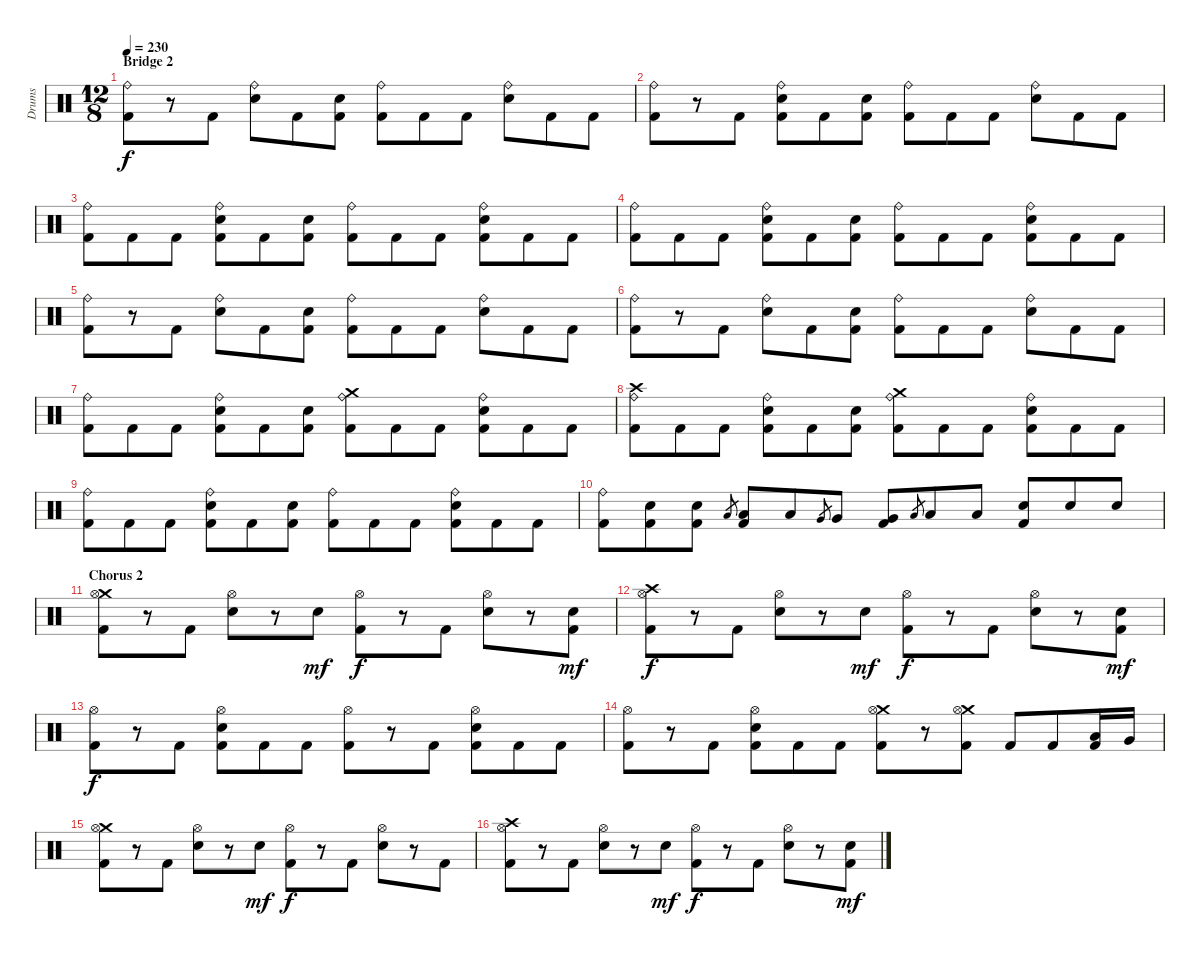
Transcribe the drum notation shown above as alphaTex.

\track ("Drums" "Drums") {instrument percussion}
\staff {score}
\articulation defaults
\ts (12 8)
\section ("" "Bridge 2")
\tempo 230
\clef neutral
\ks c
("Ride (bell)" "Kick (hit) 2").8{dy f} r.8 "Kick (hit) 2".8 ("Ride (bell)" "Snare (hit) 2").8 "Kick (hit) 2".8 ("Snare (hit) 2" "Kick (hit) 2").8 ("Ride (bell)" "Kick (hit) 2").8 "Kick (hit) 2".8 "Kick (hit) 2".8 ("Ride (bell)" "Snare (hit) 2").8 "Kick (hit) 2".8 "Kick (hit) 2".8 |
("Ride (bell)" "Kick (hit) 2").8 r.8 "Kick (hit) 2".8 ("Ride (bell)" "Snare (hit) 2" "Kick (hit) 2").8 "Kick (hit) 2".8 ("Snare (hit) 2" "Kick (hit) 2").8 ("Ride (bell)" "Kick (hit) 2").8 "Kick (hit) 2".8 "Kick (hit) 2".8 ("Ride (bell)" "Snare (hit) 2").8 "Kick (hit) 2".8 "Kick (hit) 2".8 |
("Ride (bell)" "Kick (hit) 2").8 "Kick (hit) 2".8 "Kick (hit) 2".8 ("Ride (bell)" "Snare (hit) 2" "Kick (hit) 2").8 "Kick (hit) 2".8 ("Snare (hit) 2" "Kick (hit) 2").8 ("Ride (bell)" "Kick (hit) 2").8 "Kick (hit) 2".8 "Kick (hit) 2".8 ("Ride (bell)" "Snare (hit) 2" "Kick (hit) 2").8 "Kick (hit) 2".8 "Kick (hit) 2".8 |
("Ride (bell)" "Kick (hit) 2").8 "Kick (hit) 2".8 "Kick (hit) 2".8 ("Ride (bell)" "Snare (hit) 2" "Kick (hit) 2").8 "Kick (hit) 2".8 ("Snare (hit) 2" "Kick (hit) 2").8 ("Ride (bell)" "Kick (hit) 2").8 "Kick (hit) 2".8 "Kick (hit) 2".8 ("Ride (bell)" "Snare (hit) 2" "Kick (hit) 2").8 "Kick (hit) 2".8 "Kick (hit) 2".8 |
("Ride (bell)" "Kick (hit) 2").8 r.8 "Kick (hit) 2".8 ("Ride (bell)" "Snare (hit) 2").8 "Kick (hit) 2".8 ("Snare (hit) 2" "Kick (hit) 2").8 ("Ride (bell)" "Kick (hit) 2").8 "Kick (hit) 2".8 "Kick (hit) 2".8 ("Ride (bell)" "Snare (hit) 2").8 "Kick (hit) 2".8 "Kick (hit) 2".8 |
("Ride (bell)" "Kick (hit) 2").8 r.8 "Kick (hit) 2".8 ("Ride (bell)" "Snare (hit) 2").8 "Kick (hit) 2".8 ("Snare (hit) 2" "Kick (hit) 2").8 ("Ride (bell)" "Kick (hit) 2").8 "Kick (hit) 2".8 "Kick (hit) 2".8 ("Ride (bell)" "Snare (hit) 2").8 "Kick (hit) 2".8 "Kick (hit) 2".8 |
("Ride (bell)" "Kick (hit) 2").8 "Kick (hit) 2".8 "Kick (hit) 2".8 ("Ride (bell)" "Snare (hit) 2" "Kick (hit) 2").8 "Kick (hit) 2".8 ("Snare (hit) 2" "Kick (hit) 2").8 ("Crash medium (hit)" "Ride (bell)" "Kick (hit) 2").8 "Kick (hit) 2".8 "Kick (hit) 2".8 ("Ride (bell)" "Snare (hit) 2" "Kick (hit) 2").8 "Kick (hit) 2".8 "Kick (hit) 2".8 |
("Crash high (hit)" "Ride (bell)" "Kick (hit) 2").8 "Kick (hit) 2".8 "Kick (hit) 2".8 ("Ride (bell)" "Snare (hit) 2" "Kick (hit) 2").8 "Kick (hit) 2".8 ("Snare (hit) 2" "Kick (hit) 2").8 ("Crash medium (hit)" "Ride (bell)" "Kick (hit) 2").8 "Kick (hit) 2".8 "Kick (hit) 2".8 ("Ride (bell)" "Snare (hit) 2" "Kick (hit) 2").8 "Kick (hit) 2".8 "Kick (hit) 2".8 |
("Ride (bell)" "Kick (hit) 2").8 "Kick (hit) 2".8 "Kick (hit) 2".8 ("Ride (bell)" "Snare (hit) 2" "Kick (hit) 2").8 "Kick (hit) 2".8 ("Snare (hit) 2" "Kick (hit) 2").8 ("Ride (bell)" "Kick (hit) 2").8 "Kick (hit) 2".8 "Kick (hit) 2".8 ("Ride (bell)" "Snare (hit) 2" "Kick (hit) 2").8 "Kick (hit) 2".8 "Kick (hit) 2".8 |
("Ride (bell)" "Kick (hit) 2").8 ("Snare (hit) 2" "Kick (hit) 2").8 ("Snare (hit) 2" "Kick (hit) 2").8 "Low Tom (hit)".8{gr} ("Low Tom (hit)" "Kick (hit) 2").8 "Low Tom (hit)".8 "Very Low Tom (hit)".8{gr} "Very Low Tom (hit)".8 ("Very Low Tom (hit)" "Kick (hit) 2").8 "Low Floor Tom (hit)".8{gr} "Low Floor Tom (hit)".8 "Low Floor Tom (hit)".8 ("Snare (hit) 2" "Kick (hit) 2").8 "Snare (hit) 2".8 "Snare (hit) 2".8 |
\section ("" "Chorus 2")
("Crash medium (hit)" "Hi-Hat (open)" "Kick (hit) 2").8 r.8 "Kick (hit) 2".8 ("Hi-Hat (open)" "Snare (hit) 2").8 r.8 "Snare (hit) 2".8{dy mf} ("Hi-Hat (open)" "Kick (hit) 2").8{dy f} r.8 "Kick (hit) 2".8 ("Hi-Hat (open)" "Snare (hit) 2").8 r.8 ("Snare (hit) 2" "Kick (hit) 2").8{dy mf} |
("Crash high (hit)" "Hi-Hat (open)" "Kick (hit) 2").8{dy f} r.8 "Kick (hit) 2".8 ("Hi-Hat (open)" "Snare (hit) 2").8 r.8 "Snare (hit) 2".8{dy mf} ("Hi-Hat (open)" "Kick (hit) 2").8{dy f} r.8 "Kick (hit) 2".8 ("Hi-Hat (open)" "Snare (hit) 2").8 r.8 ("Snare (hit) 2" "Kick (hit) 2").8{dy mf} |
("Hi-Hat (open)" "Kick (hit) 2").8{dy f} r.8 "Kick (hit) 2".8 ("Hi-Hat (open)" "Snare (hit) 2" "Kick (hit) 2").8 "Kick (hit) 2".8 "Kick (hit) 2".8 ("Hi-Hat (open)" "Kick (hit) 2").8 r.8 "Kick (hit) 2".8 ("Hi-Hat (open)" "Snare (hit) 2" "Kick (hit) 2").8 "Kick (hit) 2".8 "Kick (hit) 2".8 |
("Hi-Hat (open)" "Kick (hit) 2").8 r.8 "Kick (hit) 2".8 ("Hi-Hat (open)" "Snare (hit) 2" "Kick (hit) 2").8 "Kick (hit) 2".8 "Kick (hit) 2".8 ("Crash medium (hit)" "Hi-Hat (open)" "Kick (hit) 2").8 r.8 ("Crash medium (hit)" "Hi-Hat (open)" "Kick (hit) 2").8 "Kick (hit) 2".8 "Kick (hit) 2".8 ("Low Tom (hit)" "Kick (hit) 2").16 "Very Low Tom (hit)".16 |
("Crash medium (hit)" "Hi-Hat (open)" "Kick (hit) 2").8 r.8 "Kick (hit) 2".8 ("Hi-Hat (open)" "Snare (hit) 2").8 r.8 "Snare (hit) 2".8{dy mf} ("Hi-Hat (open)" "Kick (hit) 2").8{dy f} r.8 "Kick (hit) 2".8 ("Hi-Hat (open)" "Snare (hit) 2").8 r.8 "Kick (hit) 2".8 |
("Crash high (hit)" "Hi-Hat (open)" "Kick (hit) 2").8 r.8 "Kick (hit) 2".8 ("Hi-Hat (open)" "Snare (hit) 2").8 r.8 "Snare (hit) 2".8{dy mf} ("Hi-Hat (open)" "Kick (hit) 2").8{dy f} r.8 "Kick (hit) 2".8 ("Hi-Hat (open)" "Snare (hit) 2").8 r.8 ("Snare (hit) 2" "Kick (hit) 2").8{dy mf}
